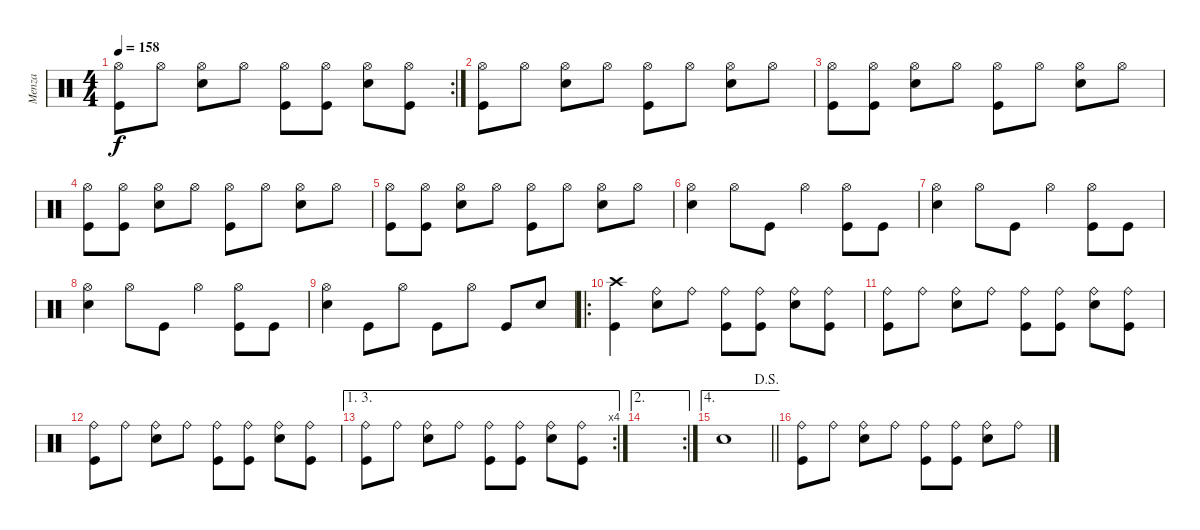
\track ("Menza" "Menza") {instrument percussion}
\staff {score}
\articulation defaults
\rc 2
\ts (4 4)
\tempo 158
\clef neutral
\ks c
("Hi-Hat (open)" "Kick (hit)").8{dy f} "Hi-Hat (open)".8 ("Hi-Hat (open)" "Snare (hit) 2").8 "Hi-Hat (open)".8 ("Hi-Hat (open)" "Kick (hit)").8 ("Hi-Hat (open)" "Kick (hit)").8 ("Hi-Hat (open)" "Snare (hit) 2").8 ("Hi-Hat (open)" "Kick (hit)").8 |
("Hi-Hat (open)" "Kick (hit)").8 "Hi-Hat (open)".8 ("Hi-Hat (open)" "Snare (hit) 2").8 "Hi-Hat (open)".8 ("Hi-Hat (open)" "Kick (hit)").8 "Hi-Hat (open)".8 ("Hi-Hat (open)" "Snare (hit) 2").8 "Hi-Hat (open)".8 |
("Hi-Hat (open)" "Kick (hit)").8 ("Hi-Hat (open)" "Kick (hit)").8 ("Hi-Hat (open)" "Snare (hit) 2").8 "Hi-Hat (open)".8 ("Hi-Hat (open)" "Kick (hit)").8 "Hi-Hat (open)".8 ("Hi-Hat (open)" "Snare (hit) 2").8 "Hi-Hat (open)".8 |
("Hi-Hat (open)" "Kick (hit)").8 ("Hi-Hat (open)" "Kick (hit)").8 ("Hi-Hat (open)" "Snare (hit) 2").8 "Hi-Hat (open)".8 ("Hi-Hat (open)" "Kick (hit)").8 "Hi-Hat (open)".8 ("Hi-Hat (open)" "Snare (hit) 2").8 "Hi-Hat (open)".8 |
("Hi-Hat (open)" "Kick (hit)").8 ("Hi-Hat (open)" "Kick (hit)").8 ("Hi-Hat (open)" "Snare (hit) 2").8 "Hi-Hat (open)".8 ("Hi-Hat (open)" "Kick (hit)").8 "Hi-Hat (open)".8 ("Hi-Hat (open)" "Snare (hit) 2").8 "Hi-Hat (open)".8 |
("Hi-Hat (open)" "Snare (hit) 2").4 "Hi-Hat (open)".8 "Kick (hit)".8 "Hi-Hat (open)".4 ("Hi-Hat (open)" "Kick (hit)").8 "Kick (hit)".8 |
("Hi-Hat (open)" "Snare (hit) 2").4 "Hi-Hat (open)".8 "Kick (hit)".8 "Hi-Hat (open)".4 ("Hi-Hat (open)" "Kick (hit)").8 "Kick (hit)".8 |
("Hi-Hat (open)" "Snare (hit) 2").4 "Hi-Hat (open)".8 "Kick (hit)".8 "Hi-Hat (open)".4 ("Hi-Hat (open)" "Kick (hit)").8 "Kick (hit)".8 |
("Hi-Hat (open)" "Snare (hit) 2").4 "Kick (hit)".8 "Hi-Hat (open)".8 "Kick (hit)".8 "Hi-Hat (open)".8 "Kick (hit)".8 "Snare (hit) 2".8 |
\ro
("Crash high (hit)" "Kick (hit)").4 ("Ride (bell)" "Snare (hit) 2").8 "Ride (bell)".8 ("Ride (bell)" "Kick (hit)").8 ("Ride (bell)" "Kick (hit)").8 ("Ride (bell)" "Snare (hit) 2").8 ("Ride (bell)" "Kick (hit)").8 |
("Ride (bell)" "Kick (hit)").8 "Ride (bell)".8 ("Ride (bell)" "Snare (hit) 2").8 "Ride (bell)".8 ("Ride (bell)" "Kick (hit)").8 ("Ride (bell)" "Kick (hit)").8 ("Ride (bell)" "Snare (hit) 2").8 ("Ride (bell)" "Kick (hit)").8 |
("Ride (bell)" "Kick (hit)").8 "Ride (bell)".8 ("Ride (bell)" "Snare (hit) 2").8 "Ride (bell)".8 ("Ride (bell)" "Kick (hit)").8 ("Ride (bell)" "Kick (hit)").8 ("Ride (bell)" "Snare (hit) 2").8 ("Ride (bell)" "Kick (hit)").8 |
\ae (1 3)
\rc 4
("Ride (bell)" "Kick (hit)").8 "Ride (bell)".8 ("Ride (bell)" "Snare (hit) 2").8 "Ride (bell)".8 ("Ride (bell)" "Kick (hit)").8 ("Ride (bell)" "Kick (hit)").8 ("Ride (bell)" "Snare (hit) 2").8 ("Ride (bell)" "Kick (hit)").8 |
\ae 2
\rc 2
|
\ae 4
\jump dalsegno
\barLineRight lightlight "Snare (hit) 2".1
|
("Ride (bell)" "Kick (hit)").8 "Ride (bell)".8 ("Ride (bell)" "Snare (hit) 2").8 "Ride (bell)".8 ("Ride (bell)" "Kick (hit)").8 ("Ride (bell)" "Kick (hit)").8 ("Ride (bell)" "Snare (hit) 2").8 "Ride (bell)".8
